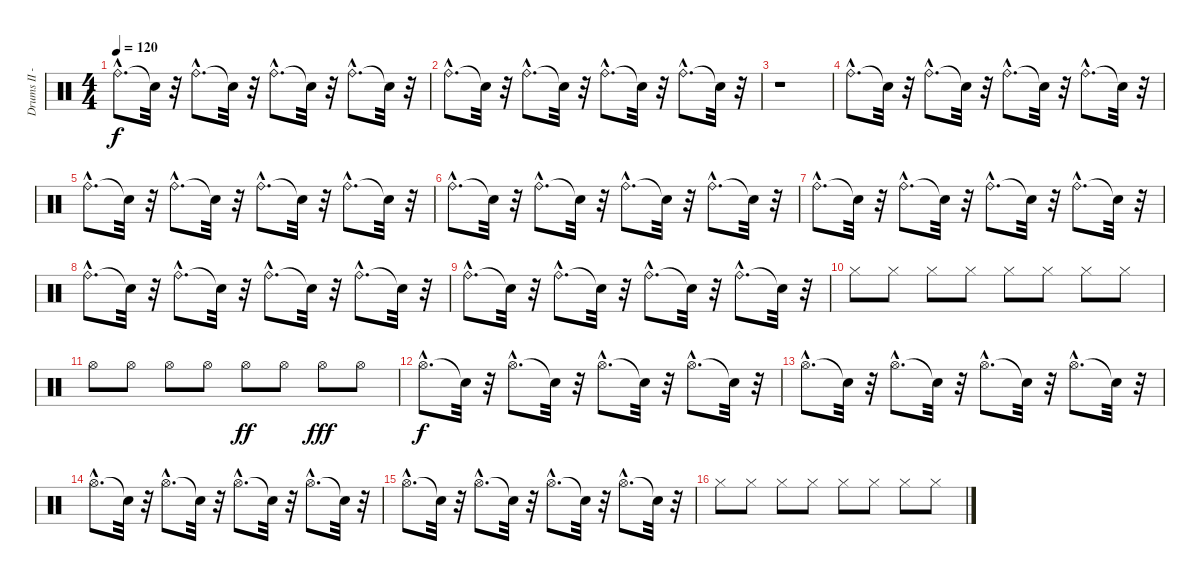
\track ("Drums II - Bobby Schayer" "Drums II -") {instrument percussion}
\staff {score}
\articulation defaults
\ts (4 4)
\tempo 120
\clef neutral
\ks c "Ride (bell)"{hac}.8{d dy f} "Snare (hit)"{t}.32
r.32 "Ride (bell)"{hac}.8{d} "Snare (hit)"{t}.32 r.32 "Ride (bell)"{hac}.8{d} "Snare (hit)"{t}.32 r.32 "Ride (bell)"{hac}.8{d} "Snare (hit)"{t}.32 r.32 |
"Ride (bell)"{hac}.8{d} "Snare (hit)"{t}.32 r.32 "Ride (bell)"{hac}.8{d} "Snare (hit)"{t}.32 r.32 "Ride (bell)"{hac}.8{d} "Snare (hit)"{t}.32 r.32 "Ride (bell)"{hac}.8{d} "Snare (hit)"{t}.32 r.32 |
r.1 |
"Ride (bell)"{hac}.8{d} "Snare (hit)"{t}.32 r.32 "Ride (bell)"{hac}.8{d} "Snare (hit)"{t}.32 r.32 "Ride (bell)"{hac}.8{d} "Snare (hit)"{t}.32 r.32 "Ride (bell)"{hac}.8{d} "Snare (hit)"{t}.32 r.32 |
"Ride (bell)"{hac}.8{d} "Snare (hit)"{t}.32 r.32 "Ride (bell)"{hac}.8{d} "Snare (hit)"{t}.32 r.32 "Ride (bell)"{hac}.8{d} "Snare (hit)"{t}.32 r.32 "Ride (bell)"{hac}.8{d} "Snare (hit)"{t}.32 r.32 |
"Ride (bell)"{hac}.8{d} "Snare (hit)"{t}.32 r.32 "Ride (bell)"{hac}.8{d} "Snare (hit)"{t}.32 r.32 "Ride (bell)"{hac}.8{d} "Snare (hit)"{t}.32 r.32 "Ride (bell)"{hac}.8{d} "Snare (hit)"{t}.32 r.32 |
"Ride (bell)"{hac}.8{d} "Snare (hit)"{t}.32 r.32 "Ride (bell)"{hac}.8{d} "Snare (hit)"{t}.32 r.32 "Ride (bell)"{hac}.8{d} "Snare (hit)"{t}.32 r.32 "Ride (bell)"{hac}.8{d} "Snare (hit)"{t}.32 r.32 |
"Ride (bell)"{hac}.8{d} "Snare (hit)"{t}.32 r.32 "Ride (bell)"{hac}.8{d} "Snare (hit)"{t}.32 r.32 "Ride (bell)"{hac}.8{d} "Snare (hit)"{t}.32 r.32 "Ride (bell)"{hac}.8{d} "Snare (hit)"{t}.32 r.32 |
"Ride (bell)"{hac}.8{d} "Snare (hit)"{t}.32 r.32 "Ride (bell)"{hac}.8{d} "Snare (hit)"{t}.32 r.32 "Ride (bell)"{hac}.8{d} "Snare (hit)"{t}.32 r.32 "Ride (bell)"{hac}.8{d} "Snare (hit)"{t}.32 r.32 |
"Hi-Hat (closed)".8 "Hi-Hat (closed)".8 "Hi-Hat (closed)".8 "Hi-Hat (closed)".8 "Hi-Hat (closed)".8 "Hi-Hat (closed)".8 "Hi-Hat (closed)".8 "Hi-Hat (closed)".8 |
"Hi-Hat (open)".8 "Hi-Hat (open)".8 "Hi-Hat (open)".8 "Hi-Hat (open)".8 "Hi-Hat (open)".8{dy ff} "Hi-Hat (open)".8 "Hi-Hat (open)".8{dy fff} "Hi-Hat (open)".8 |
"Hi-Hat (open)"{hac}.8{d dy f} "Snare (hit)"{t}.32 r.32 "Hi-Hat (open)"{hac}.8{d} "Snare (hit)"{t}.32 r.32 "Hi-Hat (open)"{hac}.8{d} "Snare (hit)"{t}.32 r.32 "Hi-Hat (open)"{hac}.8{d} "Snare (hit)"{t}.32 r.32 |
"Hi-Hat (open)"{hac}.8{d} "Snare (hit)"{t}.32 r.32 "Hi-Hat (open)"{hac}.8{d} "Snare (hit)"{t}.32 r.32 "Hi-Hat (open)"{hac}.8{d} "Snare (hit)"{t}.32 r.32 "Hi-Hat (open)"{hac}.8{d} "Snare (hit)"{t}.32 r.32 |
"Hi-Hat (open)"{hac}.8{d} "Snare (hit)"{t}.32 r.32 "Hi-Hat (open)"{hac}.8{d} "Snare (hit)"{t}.32 r.32 "Hi-Hat (open)"{hac}.8{d} "Snare (hit)"{t}.32 r.32 "Hi-Hat (open)"{hac}.8{d} "Snare (hit)"{t}.32 r.32 |
"Hi-Hat (open)"{hac}.8{d} "Snare (hit)"{t}.32 r.32 "Hi-Hat (open)"{hac}.8{d} "Snare (hit)"{t}.32 r.32 "Hi-Hat (open)"{hac}.8{d} "Snare (hit)"{t}.32 r.32 "Hi-Hat (open)"{hac}.8{d} "Snare (hit)"{t}.32 r.32 |
"Hi-Hat (closed)".8 "Hi-Hat (closed)".8 "Hi-Hat (closed)".8 "Hi-Hat (closed)".8 "Hi-Hat (closed)".8 "Hi-Hat (closed)".8 "Hi-Hat (closed)".8 "Hi-Hat (closed)".8
